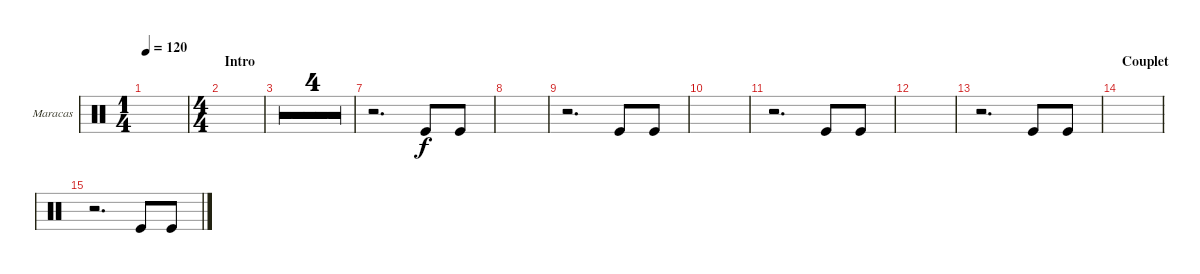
\defaultSystemsLayout 4
\bracketExtendMode groupsimilarinstruments
\firstSystemTrackNameOrientation horizontal
\otherSystemsTrackNameOrientation horizontal
\track ("Maracas" "Maracas") {multiBarRest instrument percussion}
\staff {score}
\articulation defaults
\ts (1 4)
\tempo 120
\clef neutral
\ks c
|
\ts (4 4)
\section ("" "Intro")
|
|
|
|
|
r.2{d} "Kick (hit)".8 "Kick (hit)".8 |
|
r.2{d} "Kick (hit)".8 "Kick (hit)".8 |
|
r.2{d} "Kick (hit)".8 "Kick (hit)".8 |
|
r.2{d} "Kick (hit)".8 "Kick (hit)".8 |
\section ("" "Couplet")
|
r.2{d} "Kick (hit)".8 "Kick (hit)".8
